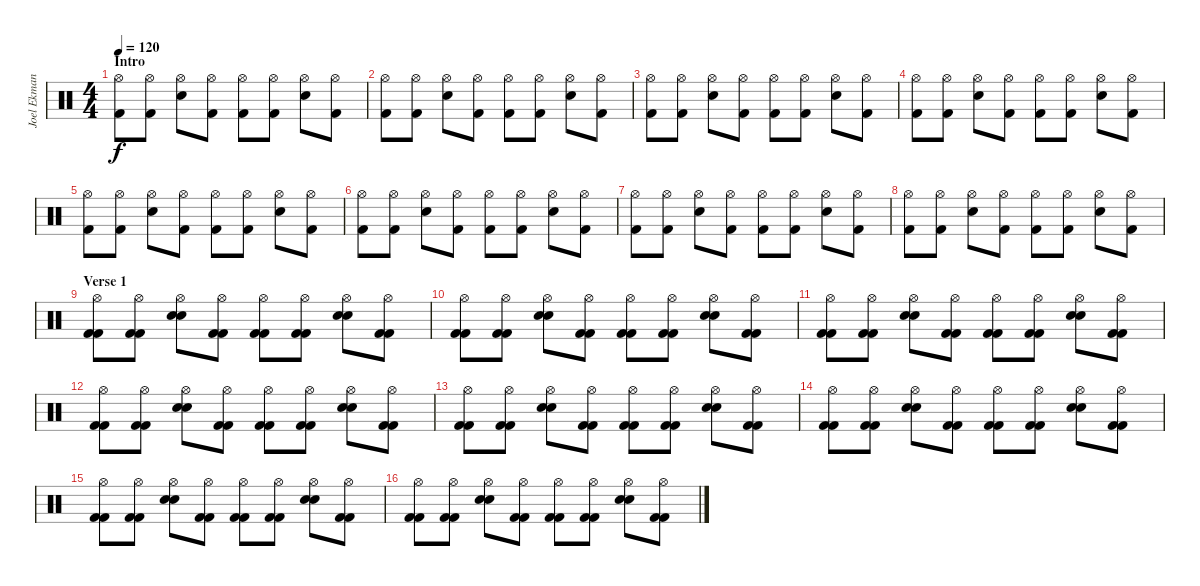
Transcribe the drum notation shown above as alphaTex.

\track ("Joel Ekman" "Joel Ekman") {instrument percussion}
\staff {score}
\articulation defaults
\ts (4 4)
\section ("" "Intro")
\tempo 120
\clef neutral
\ks c
("Hi-Hat (open)" "Kick (hit) 2").8{dy f} ("Hi-Hat (open)" "Kick (hit) 2").8 ("Hi-Hat (open)" "Electric Snare (hit)").8 ("Hi-Hat (open)" "Kick (hit) 2").8 ("Hi-Hat (open)" "Kick (hit) 2").8 ("Hi-Hat (open)" "Kick (hit) 2").8 ("Hi-Hat (open)" "Electric Snare (hit)").8 ("Hi-Hat (open)" "Kick (hit) 2").8 |
("Hi-Hat (open)" "Kick (hit) 2").8 ("Hi-Hat (open)" "Kick (hit) 2").8 ("Hi-Hat (open)" "Electric Snare (hit)").8 ("Hi-Hat (open)" "Kick (hit) 2").8 ("Hi-Hat (open)" "Kick (hit) 2").8 ("Hi-Hat (open)" "Kick (hit) 2").8 ("Hi-Hat (open)" "Electric Snare (hit)").8 ("Hi-Hat (open)" "Kick (hit) 2").8 |
("Hi-Hat (open)" "Kick (hit) 2").8 ("Hi-Hat (open)" "Kick (hit) 2").8 ("Hi-Hat (open)" "Electric Snare (hit)").8 ("Hi-Hat (open)" "Kick (hit) 2").8 ("Hi-Hat (open)" "Kick (hit) 2").8 ("Hi-Hat (open)" "Kick (hit) 2").8 ("Hi-Hat (open)" "Electric Snare (hit)").8 ("Hi-Hat (open)" "Kick (hit) 2").8 |
("Hi-Hat (open)" "Kick (hit) 2").8 ("Hi-Hat (open)" "Kick (hit) 2").8 ("Hi-Hat (open)" "Electric Snare (hit)").8 ("Hi-Hat (open)" "Kick (hit) 2").8 ("Hi-Hat (open)" "Kick (hit) 2").8 ("Hi-Hat (open)" "Kick (hit) 2").8 ("Hi-Hat (open)" "Electric Snare (hit)").8 ("Hi-Hat (open)" "Kick (hit) 2").8 |
("Hi-Hat (open)" "Kick (hit) 2").8 ("Hi-Hat (open)" "Kick (hit) 2").8 ("Hi-Hat (open)" "Electric Snare (hit)").8 ("Hi-Hat (open)" "Kick (hit) 2").8 ("Hi-Hat (open)" "Kick (hit) 2").8 ("Hi-Hat (open)" "Kick (hit) 2").8 ("Hi-Hat (open)" "Electric Snare (hit)").8 ("Hi-Hat (open)" "Kick (hit) 2").8 |
("Hi-Hat (open)" "Kick (hit) 2").8 ("Hi-Hat (open)" "Kick (hit) 2").8 ("Hi-Hat (open)" "Electric Snare (hit)").8 ("Hi-Hat (open)" "Kick (hit) 2").8 ("Hi-Hat (open)" "Kick (hit) 2").8 ("Hi-Hat (open)" "Kick (hit) 2").8 ("Hi-Hat (open)" "Electric Snare (hit)").8 ("Hi-Hat (open)" "Kick (hit) 2").8 |
("Hi-Hat (open)" "Kick (hit) 2").8 ("Hi-Hat (open)" "Kick (hit) 2").8 ("Hi-Hat (open)" "Electric Snare (hit)").8 ("Hi-Hat (open)" "Kick (hit) 2").8 ("Hi-Hat (open)" "Kick (hit) 2").8 ("Hi-Hat (open)" "Kick (hit) 2").8 ("Hi-Hat (open)" "Electric Snare (hit)").8 ("Hi-Hat (open)" "Kick (hit) 2").8 |
("Hi-Hat (open)" "Kick (hit) 2").8 ("Hi-Hat (open)" "Kick (hit) 2").8 ("Hi-Hat (open)" "Electric Snare (hit)").8 ("Hi-Hat (open)" "Kick (hit) 2").8 ("Hi-Hat (open)" "Kick (hit) 2").8 ("Hi-Hat (open)" "Kick (hit) 2").8 ("Hi-Hat (open)" "Electric Snare (hit)").8 ("Hi-Hat (open)" "Kick (hit) 2").8 |
\section ("" "Verse 1")
("Hi-Hat (open)" "Kick (hit) 2" "Kick (hit) 2").8 ("Hi-Hat (open)" "Kick (hit) 2" "Kick (hit) 2").8 ("Hi-Hat (open)" "Electric Snare (hit)" "Electric Snare (hit)").8 ("Hi-Hat (open)" "Kick (hit) 2" "Kick (hit) 2").8 ("Hi-Hat (open)" "Kick (hit) 2" "Kick (hit) 2").8 ("Hi-Hat (open)" "Kick (hit) 2" "Kick (hit) 2").8 ("Hi-Hat (open)" "Electric Snare (hit)" "Electric Snare (hit)").8 ("Hi-Hat (open)" "Kick (hit) 2" "Kick (hit) 2").8 |
("Hi-Hat (open)" "Kick (hit) 2" "Kick (hit) 2").8 ("Hi-Hat (open)" "Kick (hit) 2" "Kick (hit) 2").8 ("Hi-Hat (open)" "Electric Snare (hit)" "Electric Snare (hit)").8 ("Hi-Hat (open)" "Kick (hit) 2" "Kick (hit) 2").8 ("Hi-Hat (open)" "Kick (hit) 2" "Kick (hit) 2").8 ("Hi-Hat (open)" "Kick (hit) 2" "Kick (hit) 2").8 ("Hi-Hat (open)" "Electric Snare (hit)" "Electric Snare (hit)").8 ("Hi-Hat (open)" "Kick (hit) 2" "Kick (hit) 2").8 |
("Hi-Hat (open)" "Kick (hit) 2" "Kick (hit) 2").8 ("Hi-Hat (open)" "Kick (hit) 2" "Kick (hit) 2").8 ("Hi-Hat (open)" "Electric Snare (hit)" "Electric Snare (hit)").8 ("Hi-Hat (open)" "Kick (hit) 2" "Kick (hit) 2").8 ("Hi-Hat (open)" "Kick (hit) 2" "Kick (hit) 2").8 ("Hi-Hat (open)" "Kick (hit) 2" "Kick (hit) 2").8 ("Hi-Hat (open)" "Electric Snare (hit)" "Electric Snare (hit)").8 ("Hi-Hat (open)" "Kick (hit) 2" "Kick (hit) 2").8 |
("Hi-Hat (open)" "Kick (hit) 2" "Kick (hit) 2").8 ("Hi-Hat (open)" "Kick (hit) 2" "Kick (hit) 2").8 ("Hi-Hat (open)" "Electric Snare (hit)" "Electric Snare (hit)").8 ("Hi-Hat (open)" "Kick (hit) 2" "Kick (hit) 2").8 ("Hi-Hat (open)" "Kick (hit) 2" "Kick (hit) 2").8 ("Hi-Hat (open)" "Kick (hit) 2" "Kick (hit) 2").8 ("Hi-Hat (open)" "Electric Snare (hit)" "Electric Snare (hit)").8 ("Hi-Hat (open)" "Kick (hit) 2" "Kick (hit) 2").8 |
("Hi-Hat (open)" "Kick (hit) 2" "Kick (hit) 2").8 ("Hi-Hat (open)" "Kick (hit) 2" "Kick (hit) 2").8 ("Hi-Hat (open)" "Electric Snare (hit)" "Electric Snare (hit)").8 ("Hi-Hat (open)" "Kick (hit) 2" "Kick (hit) 2").8 ("Hi-Hat (open)" "Kick (hit) 2" "Kick (hit) 2").8 ("Hi-Hat (open)" "Kick (hit) 2" "Kick (hit) 2").8 ("Hi-Hat (open)" "Electric Snare (hit)" "Electric Snare (hit)").8 ("Hi-Hat (open)" "Kick (hit) 2" "Kick (hit) 2").8 |
("Hi-Hat (open)" "Kick (hit) 2" "Kick (hit) 2").8 ("Hi-Hat (open)" "Kick (hit) 2" "Kick (hit) 2").8 ("Hi-Hat (open)" "Electric Snare (hit)" "Electric Snare (hit)").8 ("Hi-Hat (open)" "Kick (hit) 2" "Kick (hit) 2").8 ("Hi-Hat (open)" "Kick (hit) 2" "Kick (hit) 2").8 ("Hi-Hat (open)" "Kick (hit) 2" "Kick (hit) 2").8 ("Hi-Hat (open)" "Electric Snare (hit)" "Electric Snare (hit)").8 ("Hi-Hat (open)" "Kick (hit) 2" "Kick (hit) 2").8 |
("Hi-Hat (open)" "Kick (hit) 2" "Kick (hit) 2").8 ("Hi-Hat (open)" "Kick (hit) 2" "Kick (hit) 2").8 ("Hi-Hat (open)" "Electric Snare (hit)" "Electric Snare (hit)").8 ("Hi-Hat (open)" "Kick (hit) 2" "Kick (hit) 2").8 ("Hi-Hat (open)" "Kick (hit) 2" "Kick (hit) 2").8 ("Hi-Hat (open)" "Kick (hit) 2" "Kick (hit) 2").8 ("Hi-Hat (open)" "Electric Snare (hit)" "Electric Snare (hit)").8 ("Hi-Hat (open)" "Kick (hit) 2" "Kick (hit) 2").8 |
("Hi-Hat (open)" "Kick (hit) 2" "Kick (hit) 2").8 ("Hi-Hat (open)" "Kick (hit) 2" "Kick (hit) 2").8 ("Hi-Hat (open)" "Electric Snare (hit)" "Electric Snare (hit)").8 ("Hi-Hat (open)" "Kick (hit) 2" "Kick (hit) 2").8 ("Hi-Hat (open)" "Kick (hit) 2" "Kick (hit) 2").8 ("Hi-Hat (open)" "Kick (hit) 2" "Kick (hit) 2").8 ("Hi-Hat (open)" "Electric Snare (hit)" "Electric Snare (hit)").8 ("Hi-Hat (open)" "Kick (hit) 2" "Kick (hit) 2").8
